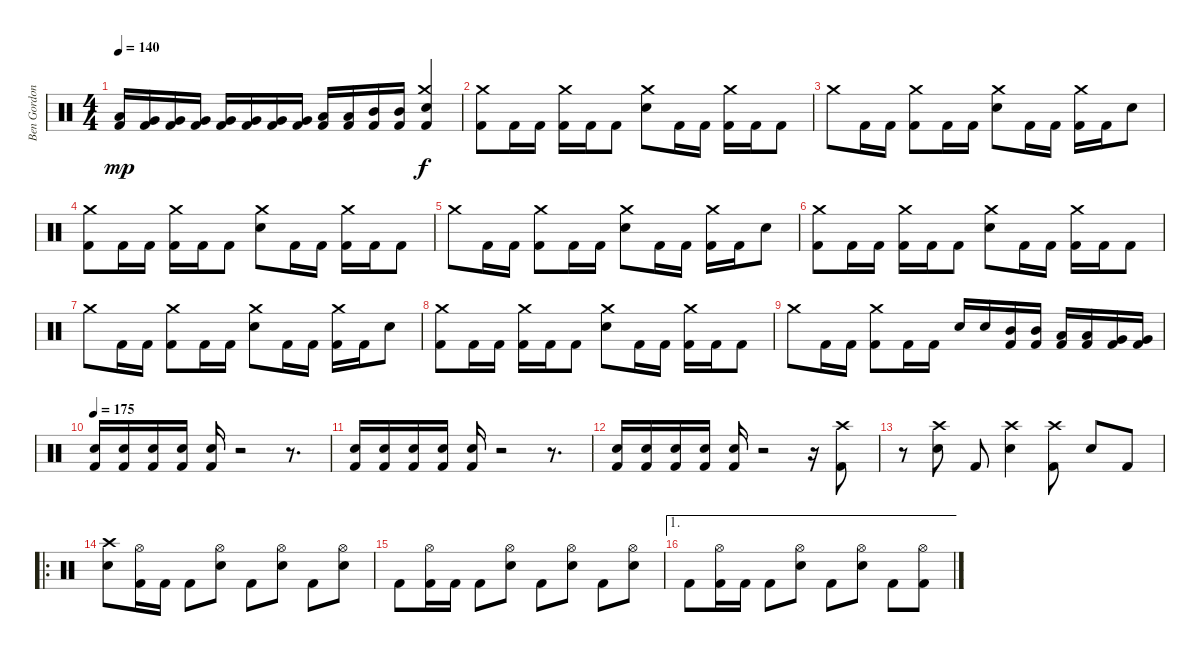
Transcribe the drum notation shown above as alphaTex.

\track ("Ben Gordon" "Ben Gordon") {instrument percussion}
\staff {score}
\articulation defaults
\ts (4 4)
\tempo 140
\clef neutral
\ks c
("Low Tom (hit)" "Kick (hit) 2").16{dy mp} ("Very Low Tom (hit)" "Kick (hit) 2").16 ("Very Low Tom (hit)" "Kick (hit) 2").16 ("Very Low Tom (hit)" "Kick (hit) 2").16 ("Very Low Tom (hit)" "Kick (hit) 2").16 ("Very Low Tom (hit)" "Kick (hit) 2").16 ("Very Low Tom (hit)" "Kick (hit) 2").16 ("Very Low Tom (hit)" "Kick (hit) 2").16 ("Low Tom (hit)" "Kick (hit) 2").16 ("Low Tom (hit)" "Kick (hit) 2").16 ("Mid Tom (hit)" "Kick (hit) 2").16 ("Mid Tom (hit)" "Kick (hit) 2").16 ("Crash medium (hit)" "Snare (hit) 2" "Kick (hit) 2").4{dy f} |
("Crash medium (hit)" "Kick (hit) 2").8 "Kick (hit) 2".16 "Kick (hit) 2".16 ("Crash medium (hit)" "Kick (hit) 2").16 "Kick (hit) 2".16 "Kick (hit) 2".8 ("Crash medium (hit)" "Snare (hit) 2").8 "Kick (hit) 2".16 "Kick (hit) 2".16 ("Crash medium (hit)" "Kick (hit) 2").16 "Kick (hit) 2".16 "Kick (hit) 2".8 |
"Crash medium (hit)".8 "Kick (hit) 2".16 "Kick (hit) 2".16 ("Crash medium (hit)" "Kick (hit) 2").8 "Kick (hit) 2".16 "Kick (hit) 2".16 ("Crash medium (hit)" "Snare (hit) 2").8 "Kick (hit) 2".16 "Kick (hit) 2".16 ("Crash medium (hit)" "Kick (hit) 2").16 "Kick (hit) 2".16 "Snare (hit) 2".8 |
("Crash medium (hit)" "Kick (hit) 2").8 "Kick (hit) 2".16 "Kick (hit) 2".16 ("Crash medium (hit)" "Kick (hit) 2").16 "Kick (hit) 2".16 "Kick (hit) 2".8 ("Crash medium (hit)" "Snare (hit) 2").8 "Kick (hit) 2".16 "Kick (hit) 2".16 ("Crash medium (hit)" "Kick (hit) 2").16 "Kick (hit) 2".16 "Kick (hit) 2".8 |
"Crash medium (hit)".8 "Kick (hit) 2".16 "Kick (hit) 2".16 ("Crash medium (hit)" "Kick (hit) 2").8 "Kick (hit) 2".16 "Kick (hit) 2".16 ("Crash medium (hit)" "Snare (hit) 2").8 "Kick (hit) 2".16 "Kick (hit) 2".16 ("Crash medium (hit)" "Kick (hit) 2").16 "Kick (hit) 2".16 "Snare (hit) 2".8 |
("Crash medium (hit)" "Kick (hit) 2").8 "Kick (hit) 2".16 "Kick (hit) 2".16 ("Crash medium (hit)" "Kick (hit) 2").16 "Kick (hit) 2".16 "Kick (hit) 2".8 ("Crash medium (hit)" "Snare (hit) 2").8 "Kick (hit) 2".16 "Kick (hit) 2".16 ("Crash medium (hit)" "Kick (hit) 2").16 "Kick (hit) 2".16 "Kick (hit) 2".8 |
"Crash medium (hit)".8 "Kick (hit) 2".16 "Kick (hit) 2".16 ("Crash medium (hit)" "Kick (hit) 2").8 "Kick (hit) 2".16 "Kick (hit) 2".16 ("Crash medium (hit)" "Snare (hit) 2").8 "Kick (hit) 2".16 "Kick (hit) 2".16 ("Crash medium (hit)" "Kick (hit) 2").16 "Kick (hit) 2".16 "Snare (hit) 2".8 |
("Crash medium (hit)" "Kick (hit) 2").8 "Kick (hit) 2".16 "Kick (hit) 2".16 ("Crash medium (hit)" "Kick (hit) 2").16 "Kick (hit) 2".16 "Kick (hit) 2".8 ("Crash medium (hit)" "Snare (hit) 2").8 "Kick (hit) 2".16 "Kick (hit) 2".16 ("Crash medium (hit)" "Kick (hit) 2").16 "Kick (hit) 2".16 "Kick (hit) 2".8 |
"Crash medium (hit)".8 "Kick (hit) 2".16 "Kick (hit) 2".16 ("Crash medium (hit)" "Kick (hit) 2").8 "Kick (hit) 2".16 "Kick (hit) 2".16 "Snare (hit) 2".16 "Snare (hit) 2".16 ("Mid Tom (hit)" "Kick (hit) 2").16 ("Mid Tom (hit)" "Kick (hit) 2").16 ("Low Tom (hit)" "Kick (hit) 2").16 ("Low Tom (hit)" "Kick (hit) 2").16 ("Very Low Tom (hit)" "Kick (hit) 2").16 ("Very Low Tom (hit)" "Kick (hit) 2").16 |
\tempo 175
("Snare (hit) 2" "Kick (hit) 2").16 ("Snare (hit) 2" "Kick (hit) 2").16 ("Snare (hit) 2" "Kick (hit) 2").16 ("Snare (hit) 2" "Kick (hit) 2").16 ("Snare (hit) 2" "Kick (hit) 2").16 r.2 r.8{d} |
("Snare (hit) 2" "Kick (hit) 2").16 ("Snare (hit) 2" "Kick (hit) 2").16 ("Snare (hit) 2" "Kick (hit) 2").16 ("Snare (hit) 2" "Kick (hit) 2").16 ("Snare (hit) 2" "Kick (hit) 2").16 r.2 r.8{d} |
("Snare (hit) 2" "Kick (hit) 2").16 ("Snare (hit) 2" "Kick (hit) 2").16 ("Snare (hit) 2" "Kick (hit) 2").16 ("Snare (hit) 2" "Kick (hit) 2").16 ("Snare (hit) 2" "Kick (hit) 2").16 r.2 r.16 ("Crash high (hit)" "Kick (hit) 2").8 |
r.8 ("Crash high (hit)" "Snare (hit) 2").8 "Kick (hit) 2".8 ("Crash high (hit)" "Snare (hit) 2").4 ("Crash high (hit)" "Kick (hit) 2").8 "Snare (hit) 2".8 "Kick (hit) 2".8 |
\ro
("Crash high (hit)" "Snare (hit) 2").8 ("Hi-Hat (open)" "Kick (hit) 2").16 "Kick (hit) 2".16 "Kick (hit) 2".8 ("Hi-Hat (open)" "Snare (hit) 2").8 "Kick (hit) 2".8 ("Hi-Hat (open)" "Snare (hit) 2").8 "Kick (hit) 2".8 ("Hi-Hat (open)" "Snare (hit) 2").8 |
"Kick (hit) 2".8 ("Hi-Hat (open)" "Kick (hit) 2").16 "Kick (hit) 2".16 "Kick (hit) 2".8 ("Hi-Hat (open)" "Snare (hit) 2").8 "Kick (hit) 2".8 ("Hi-Hat (open)" "Snare (hit) 2").8 "Kick (hit) 2".8 ("Hi-Hat (open)" "Snare (hit) 2").8 |
\ae 1 "Kick (hit) 2".8
("Hi-Hat (open)" "Kick (hit) 2").16 "Kick (hit) 2".16 "Kick (hit) 2".8 ("Hi-Hat (open)" "Snare (hit) 2").8 "Kick (hit) 2".8 ("Hi-Hat (open)" "Snare (hit) 2").8 "Kick (hit) 2".8 ("Hi-Hat (open)" "Kick (hit) 2").8
